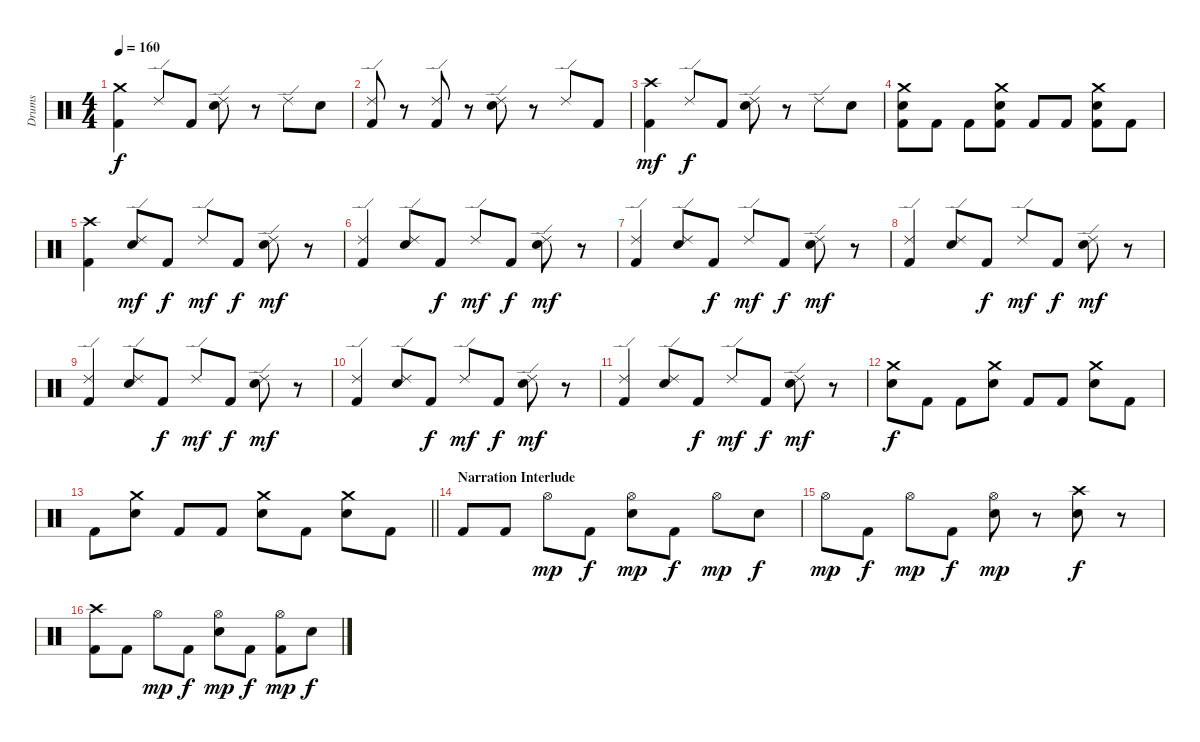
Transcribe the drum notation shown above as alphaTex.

\track ("Drums" "Drums") {instrument percussion}
\staff {score}
\articulation defaults
\ts (4 4)
\tempo 160
\clef neutral
\ks c
("Crash medium (hit)" "Kick (hit) 2").4{dy f} "Ride (edge) 2".8 "Kick (hit) 2".8 ("Ride (edge) 2" "Electric Snare (hit)").8 r.8 "Ride (edge) 2".8 "Electric Snare (hit)".8 |
("Ride (edge) 2" "Kick (hit) 2").8 r.8 ("Ride (edge) 2" "Kick (hit) 2").8 r.8 ("Ride (edge) 2" "Electric Snare (hit)").8 r.8 "Ride (edge) 2".8 "Kick (hit) 2".8 |
("Crash high (hit)" "Kick (hit) 2").4{dy mf} "Ride (edge) 2".8{dy f} "Kick (hit) 2".8 ("Ride (edge) 2" "Electric Snare (hit)").8 r.8 "Ride (edge) 2".8 "Electric Snare (hit)".8 |
("Crash medium (hit)" "Electric Snare (hit)" "Kick (hit) 2").8 "Kick (hit) 2".8 "Kick (hit) 2".8 ("Crash medium (hit)" "Electric Snare (hit)" "Kick (hit) 2").8 "Kick (hit) 2".8 "Kick (hit) 2".8 ("Crash medium (hit)" "Electric Snare (hit)" "Kick (hit) 2").8 "Kick (hit) 2".8 |
("Crash high (hit)" "Kick (hit) 2").4 ("Ride (edge) 2" "Electric Snare (hit)").8{dy mf} "Kick (hit) 2".8{dy f} "Ride (edge) 2".8{dy mf} "Kick (hit) 2".8{dy f} ("Ride (edge) 2" "Electric Snare (hit)").8{dy mf} r.8 |
("Ride (edge) 2" "Kick (hit) 2").4 ("Ride (edge) 2" "Electric Snare (hit)").8 "Kick (hit) 2".8{dy f} "Ride (edge) 2".8{dy mf} "Kick (hit) 2".8{dy f} ("Ride (edge) 2" "Electric Snare (hit)").8{dy mf} r.8 |
("Ride (edge) 2" "Kick (hit) 2").4 ("Ride (edge) 2" "Electric Snare (hit)").8 "Kick (hit) 2".8{dy f} "Ride (edge) 2".8{dy mf} "Kick (hit) 2".8{dy f} ("Ride (edge) 2" "Electric Snare (hit)").8{dy mf} r.8 |
("Ride (edge) 2" "Kick (hit) 2").4 ("Ride (edge) 2" "Electric Snare (hit)").8 "Kick (hit) 2".8{dy f} "Ride (edge) 2".8{dy mf} "Kick (hit) 2".8{dy f} ("Ride (edge) 2" "Electric Snare (hit)").8{dy mf} r.8 |
("Ride (edge) 2" "Kick (hit) 2").4 ("Ride (edge) 2" "Electric Snare (hit)").8 "Kick (hit) 2".8{dy f} "Ride (edge) 2".8{dy mf} "Kick (hit) 2".8{dy f} ("Ride (edge) 2" "Electric Snare (hit)").8{dy mf} r.8 |
("Ride (edge) 2" "Kick (hit) 2").4 ("Ride (edge) 2" "Electric Snare (hit)").8 "Kick (hit) 2".8{dy f} "Ride (edge) 2".8{dy mf} "Kick (hit) 2".8{dy f} ("Ride (edge) 2" "Electric Snare (hit)").8{dy mf} r.8 |
("Ride (edge) 2" "Kick (hit) 2").4 ("Ride (edge) 2" "Electric Snare (hit)").8 "Kick (hit) 2".8{dy f} "Ride (edge) 2".8{dy mf} "Kick (hit) 2".8{dy f} ("Ride (edge) 2" "Electric Snare (hit)").8{dy mf} r.8 |
("Crash medium (hit)" "Electric Snare (hit)").8{dy f} "Kick (hit) 2".8 "Kick (hit) 2".8 ("Crash medium (hit)" "Electric Snare (hit)").8 "Kick (hit) 2".8 "Kick (hit) 2".8 ("Crash medium (hit)" "Electric Snare (hit)").8 "Kick (hit) 2".8 |
\barLineRight lightlight "Kick (hit) 2".8
("Crash medium (hit)" "Electric Snare (hit)").8 "Kick (hit) 2".8 "Kick (hit) 2".8 ("Crash medium (hit)" "Electric Snare (hit)").8 "Kick (hit) 2".8 ("Crash medium (hit)" "Electric Snare (hit)").8 "Kick (hit) 2".8 |
\section ("" "Narration Interlude")
"Kick (hit) 2".8 "Kick (hit) 2".8 "Hi-Hat (open)".8{dy mp} "Kick (hit) 2".8{dy f} ("Hi-Hat (open)" "Electric Snare (hit)").8{dy mp} "Kick (hit) 2".8{dy f} "Hi-Hat (open)".8{dy mp} "Electric Snare (hit)".8{dy f} |
"Hi-Hat (open)".8{dy mp} "Kick (hit) 2".8{dy f} "Hi-Hat (open)".8{dy mp} "Kick (hit) 2".8{dy f} ("Hi-Hat (open)" "Electric Snare (hit)").8{dy mp} r.8 ("Crash high (hit)" "Electric Snare (hit)").8{dy f} r.8 |
("Crash high (hit)" "Kick (hit) 2").8 "Kick (hit) 2".8 "Hi-Hat (open)".8{dy mp} "Kick (hit) 2".8{dy f} ("Hi-Hat (open)" "Electric Snare (hit)").8{dy mp} "Kick (hit) 2".8{dy f} ("Hi-Hat (open)" "Kick (hit) 2").8{dy mp} "Electric Snare (hit)".8{dy f}
